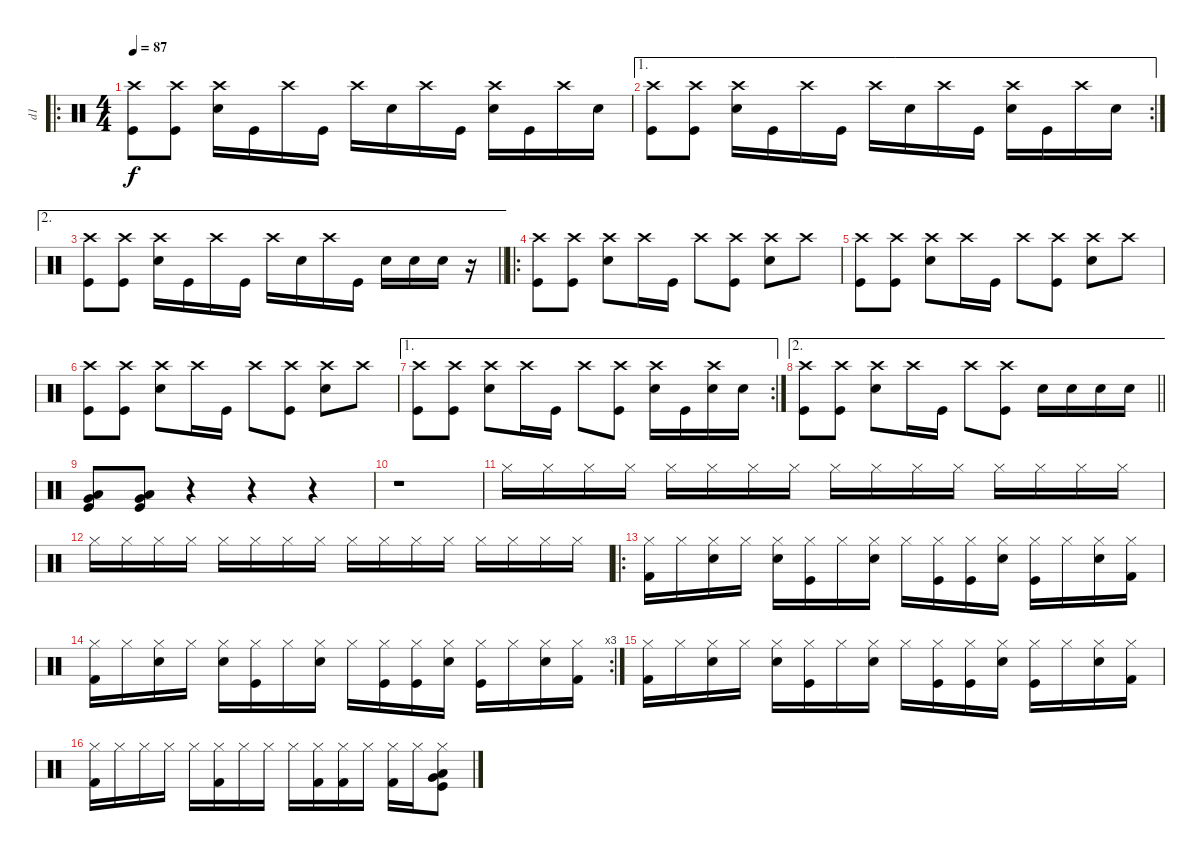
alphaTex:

\track ("d1" "d1") {instrument percussion}
\staff {score}
\articulation defaults
\ro
\ts (4 4)
\tempo 87
\clef neutral
\ks c
("Crash high (hit)" "Kick (hit)").8{dy f} ("Crash high (hit)" "Kick (hit)").8 ("Crash high (hit)" "Snare (hit) 2").16 "Kick (hit)".16 "Crash high (hit)".16 "Kick (hit)".16 "Crash high (hit)".16 "Snare (hit) 2".16 "Crash high (hit)".16 "Kick (hit)".16 ("Snare (hit) 2" "Crash high (hit)").16 "Kick (hit)".16 "Crash high (hit)".16 "Snare (hit) 2".16 |
\ae 1
\rc 2
("Crash high (hit)" "Kick (hit)").8 ("Crash high (hit)" "Kick (hit)").8 ("Crash high (hit)" "Snare (hit) 2").16 "Kick (hit)".16 "Crash high (hit)".16 "Kick (hit)".16 "Crash high (hit)".16 "Snare (hit) 2".16 "Crash high (hit)".16 "Kick (hit)".16 ("Snare (hit) 2" "Crash high (hit)").16 "Kick (hit)".16 "Crash high (hit)".16 "Snare (hit) 2".16 |
\ae 2
\barLineRight lightlight
("Crash high (hit)" "Kick (hit)").8 ("Crash high (hit)" "Kick (hit)").8 ("Crash high (hit)" "Snare (hit) 2").16 "Kick (hit)".16 "Crash high (hit)".16 "Kick (hit)".16 "Crash high (hit)".16 "Snare (hit) 2".16 "Crash high (hit)".16 "Kick (hit)".16 "Snare (hit) 2".16 "Snare (hit) 2".16 "Snare (hit) 2".16 r.16 |
\ro
("Crash high (hit)" "Kick (hit)").8 ("Crash high (hit)" "Kick (hit)").8 ("Snare (hit) 2" "Crash high (hit)").8 "Crash high (hit)".16 "Kick (hit)".16 "Crash high (hit)".8 ("Crash high (hit)" "Kick (hit)").8 ("Snare (hit) 2" "Crash high (hit)").8 "Crash high (hit)".8 |
("Crash high (hit)" "Kick (hit)").8 ("Crash high (hit)" "Kick (hit)").8 ("Snare (hit) 2" "Crash high (hit)").8 "Crash high (hit)".16 "Kick (hit)".16 "Crash high (hit)".8 ("Crash high (hit)" "Kick (hit)").8 ("Snare (hit) 2" "Crash high (hit)").8 "Crash high (hit)".8 |
("Crash high (hit)" "Kick (hit)").8 ("Crash high (hit)" "Kick (hit)").8 ("Snare (hit) 2" "Crash high (hit)").8 "Crash high (hit)".16 "Kick (hit)".16 "Crash high (hit)".8 ("Crash high (hit)" "Kick (hit)").8 ("Snare (hit) 2" "Crash high (hit)").8 "Crash high (hit)".8 |
\ae 1
\rc 2
("Crash high (hit)" "Kick (hit)").8 ("Crash high (hit)" "Kick (hit)").8 ("Snare (hit) 2" "Crash high (hit)").8 "Crash high (hit)".16 "Kick (hit)".16 "Crash high (hit)".8 ("Crash high (hit)" "Kick (hit)").8 ("Snare (hit) 2" "Crash high (hit)").16 "Kick (hit)".16 ("Crash high (hit)" "Snare (hit) 2").16 "Snare (hit) 2".16 |
\ae 2
\barLineRight lightlight
("Crash high (hit)" "Kick (hit)").8 ("Crash high (hit)" "Kick (hit)").8 ("Snare (hit) 2" "Crash high (hit)").8 "Crash high (hit)".16 "Kick (hit)".16 "Crash high (hit)".8 ("Crash high (hit)" "Kick (hit)").8 "Snare (hit) 2".16 "Snare (hit) 2".16 "Snare (hit) 2".16 "Snare (hit) 2".16 |
("Kick (hit)" "Low Floor Tom (hit)" "Very Low Tom (hit)").8 ("Low Floor Tom (hit)" "Very Low Tom (hit)" "Kick (hit)").8 r.4 r.4 r.4 |
r.1 |
"Hi-Hat (closed)".16 "Hi-Hat (closed)".16 "Hi-Hat (closed)".16 "Hi-Hat (closed)".16 "Hi-Hat (closed)".16 "Hi-Hat (closed)".16 "Hi-Hat (closed)".16 "Hi-Hat (closed)".16 "Hi-Hat (closed)".16 "Hi-Hat (closed)".16 "Hi-Hat (closed)".16 "Hi-Hat (closed)".16 "Hi-Hat (closed)".16 "Hi-Hat (closed)".16 "Hi-Hat (closed)".16 "Hi-Hat (closed)".16 |
"Hi-Hat (closed)".16 "Hi-Hat (closed)".16 "Hi-Hat (closed)".16 "Hi-Hat (closed)".16 "Hi-Hat (closed)".16 "Hi-Hat (closed)".16 "Hi-Hat (closed)".16 "Hi-Hat (closed)".16 "Hi-Hat (closed)".16 "Hi-Hat (closed)".16 "Hi-Hat (closed)".16 "Hi-Hat (closed)".16 "Hi-Hat (closed)".16 "Hi-Hat (closed)".16 "Hi-Hat (closed)".16 "Hi-Hat (closed)".16 |
\ro
("Hi-Hat (closed)" "Kick (hit) 2").16 "Hi-Hat (closed)".16 ("Hi-Hat (closed)" "Electric Snare (hit)").16 "Hi-Hat (closed)".16 ("Hi-Hat (closed)" "Electric Snare (hit)").16 ("Hi-Hat (closed)" "Kick (hit)").16 "Hi-Hat (closed)".16 ("Hi-Hat (closed)" "Electric Snare (hit)").16 "Hi-Hat (closed)".16 ("Hi-Hat (closed)" "Kick (hit)").16 ("Hi-Hat (closed)" "Kick (hit)").16 ("Hi-Hat (closed)" "Electric Snare (hit)").16 ("Hi-Hat (closed)" "Kick (hit)").16 "Hi-Hat (closed)".16 ("Hi-Hat (closed)" "Electric Snare (hit)").16 ("Hi-Hat (closed)" "Kick (hit) 2").16 |
\rc 3
("Hi-Hat (closed)" "Kick (hit) 2").16 "Hi-Hat (closed)".16 ("Hi-Hat (closed)" "Electric Snare (hit)").16 "Hi-Hat (closed)".16 ("Hi-Hat (closed)" "Electric Snare (hit)").16 ("Hi-Hat (closed)" "Kick (hit)").16 "Hi-Hat (closed)".16 ("Hi-Hat (closed)" "Electric Snare (hit)").16 "Hi-Hat (closed)".16 ("Hi-Hat (closed)" "Kick (hit)").16 ("Hi-Hat (closed)" "Kick (hit)").16 ("Hi-Hat (closed)" "Electric Snare (hit)").16 ("Hi-Hat (closed)" "Kick (hit)").16 "Hi-Hat (closed)".16 ("Hi-Hat (closed)" "Electric Snare (hit)").16 ("Hi-Hat (closed)" "Kick (hit) 2").16 |
("Hi-Hat (closed)" "Kick (hit) 2").16 "Hi-Hat (closed)".16 ("Hi-Hat (closed)" "Electric Snare (hit)").16 "Hi-Hat (closed)".16 ("Hi-Hat (closed)" "Electric Snare (hit)").16 ("Hi-Hat (closed)" "Kick (hit)").16 "Hi-Hat (closed)".16 ("Hi-Hat (closed)" "Electric Snare (hit)").16 "Hi-Hat (closed)".16 ("Hi-Hat (closed)" "Kick (hit)").16 ("Hi-Hat (closed)" "Kick (hit)").16 ("Hi-Hat (closed)" "Electric Snare (hit)").16 ("Hi-Hat (closed)" "Kick (hit)").16 "Hi-Hat (closed)".16 ("Hi-Hat (closed)" "Electric Snare (hit)").16 ("Hi-Hat (closed)" "Kick (hit) 2").16 |
("Hi-Hat (closed)" "Kick (hit) 2").16 "Hi-Hat (closed)".16 "Hi-Hat (closed)".16 "Hi-Hat (closed)".16 "Hi-Hat (closed)".16 ("Hi-Hat (closed)" "Kick (hit) 2").16 "Hi-Hat (closed)".16 "Hi-Hat (closed)".16 "Hi-Hat (closed)".16 ("Kick (hit) 2" "Hi-Hat (closed)").16 ("Hi-Hat (closed)" "Kick (hit) 2").16 "Hi-Hat (closed)".16 ("Hi-Hat (closed)" "Kick (hit) 2").16 "Hi-Hat (closed)".16 ("Hi-Hat (closed)" "Low Floor Tom (hit)" "Very Low Tom (hit)" "Kick (hit)").8
